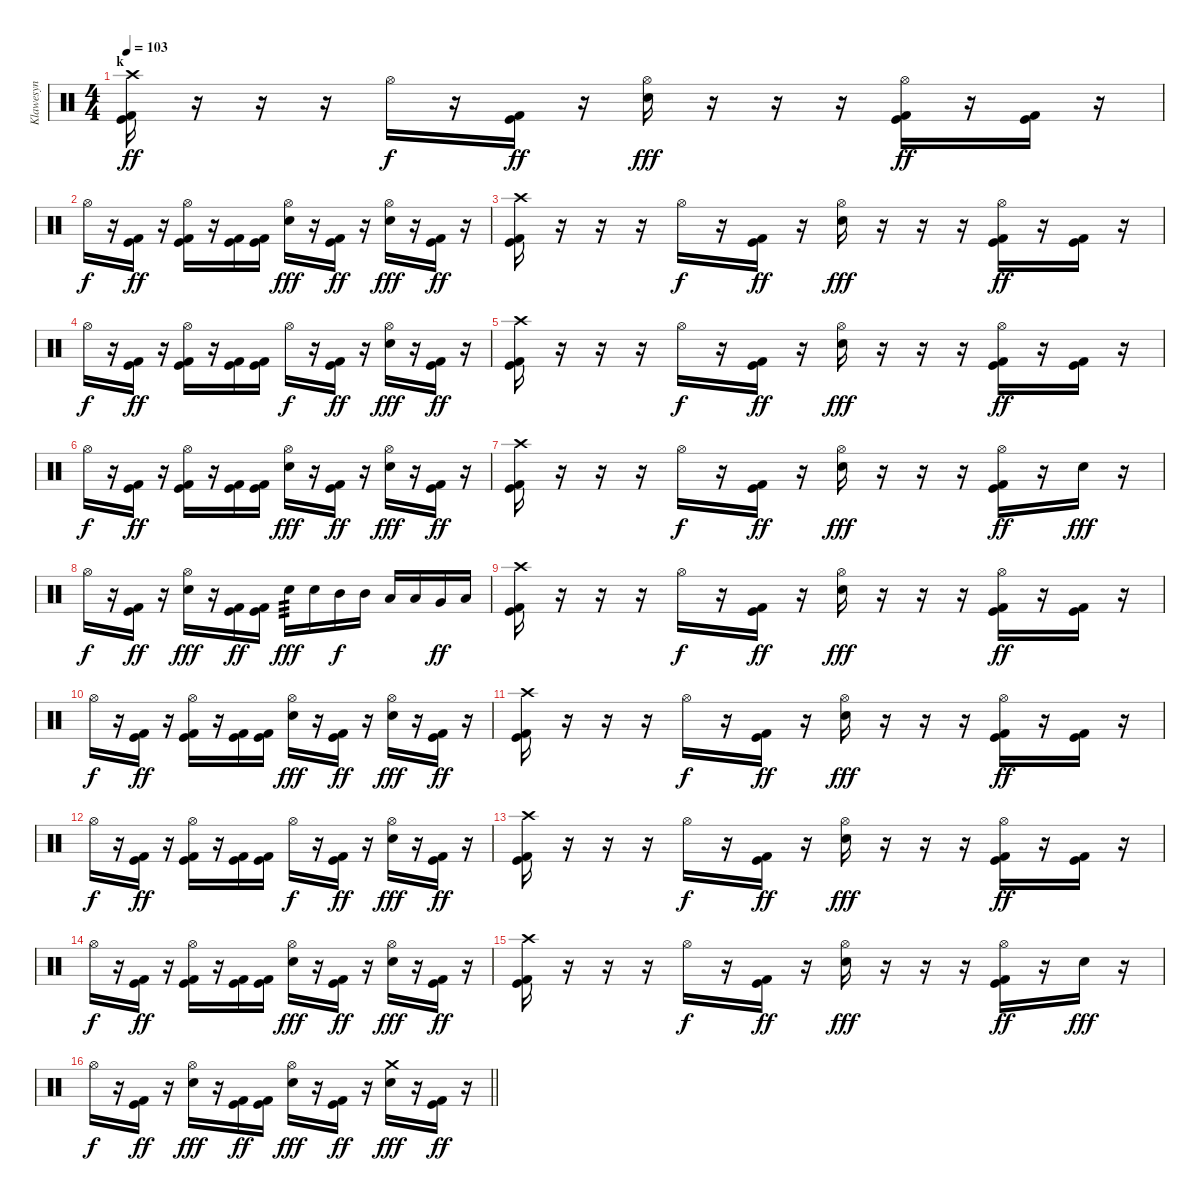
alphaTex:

\track ("Klawesyn" "Klawesyn") {instrument percussion}
\staff {score}
\articulation defaults
\ts (4 4)
\section ("" "k")
\tempo 103
\clef neutral
\ks c
("Crash high (hit)" "Kick (hit)" "Kick (hit) 2").16{dy ff} r.16 r.16 r.16 "Hi-Hat (open)".16{dy f} r.16 ("Kick (hit)" "Kick (hit) 2").16{dy ff} r.16 ("Hi-Hat (open)" "Electric Snare (hit)").16{dy fff} r.16 r.16 r.16 ("Hi-Hat (open)" "Kick (hit)" "Kick (hit) 2").16{dy ff} r.16 ("Kick (hit)" "Kick (hit) 2").16 r.16 |
"Hi-Hat (open)".16{dy f} r.16 ("Kick (hit)" "Kick (hit) 2").16{dy ff} r.16 ("Hi-Hat (open)" "Kick (hit)" "Kick (hit) 2").16 r.16 ("Kick (hit)" "Kick (hit) 2").16 ("Kick (hit)" "Kick (hit) 2").16 ("Hi-Hat (open)" "Electric Snare (hit)").16{dy fff} r.16 ("Kick (hit)" "Kick (hit) 2").16{dy ff} r.16 ("Hi-Hat (open)" "Electric Snare (hit)").16{dy fff} r.16 ("Kick (hit)" "Kick (hit) 2").16{dy ff} r.16 |
("Crash high (hit)" "Kick (hit)" "Kick (hit) 2").16 r.16 r.16 r.16 "Hi-Hat (open)".16{dy f} r.16 ("Kick (hit)" "Kick (hit) 2").16{dy ff} r.16 ("Hi-Hat (open)" "Electric Snare (hit)").16{dy fff} r.16 r.16 r.16 ("Hi-Hat (open)" "Kick (hit)" "Kick (hit) 2").16{dy ff} r.16 ("Kick (hit)" "Kick (hit) 2").16 r.16 |
"Hi-Hat (open)".16{dy f} r.16 ("Kick (hit)" "Kick (hit) 2").16{dy ff} r.16 ("Hi-Hat (open)" "Kick (hit)" "Kick (hit) 2").16 r.16 ("Kick (hit)" "Kick (hit) 2").16 ("Kick (hit)" "Kick (hit) 2").16 "Hi-Hat (open)".16{dy f} r.16 ("Kick (hit)" "Kick (hit) 2").16{dy ff} r.16 ("Hi-Hat (open)" "Electric Snare (hit)").16{dy fff} r.16 ("Kick (hit)" "Kick (hit) 2").16{dy ff} r.16 |
("Crash high (hit)" "Kick (hit)" "Kick (hit) 2").16 r.16 r.16 r.16 "Hi-Hat (open)".16{dy f} r.16 ("Kick (hit)" "Kick (hit) 2").16{dy ff} r.16 ("Hi-Hat (open)" "Electric Snare (hit)").16{dy fff} r.16 r.16 r.16 ("Hi-Hat (open)" "Kick (hit)" "Kick (hit) 2").16{dy ff} r.16 ("Kick (hit)" "Kick (hit) 2").16 r.16 |
"Hi-Hat (open)".16{dy f} r.16 ("Kick (hit)" "Kick (hit) 2").16{dy ff} r.16 ("Hi-Hat (open)" "Kick (hit)" "Kick (hit) 2").16 r.16 ("Kick (hit)" "Kick (hit) 2").16 ("Kick (hit)" "Kick (hit) 2").16 ("Hi-Hat (open)" "Electric Snare (hit)").16{dy fff} r.16 ("Kick (hit)" "Kick (hit) 2").16{dy ff} r.16 ("Hi-Hat (open)" "Electric Snare (hit)").16{dy fff} r.16 ("Kick (hit)" "Kick (hit) 2").16{dy ff} r.16 |
("Crash high (hit)" "Kick (hit)" "Kick (hit) 2").16 r.16 r.16 r.16 "Hi-Hat (open)".16{dy f} r.16 ("Kick (hit)" "Kick (hit) 2").16{dy ff} r.16 ("Hi-Hat (open)" "Electric Snare (hit)").16{dy fff} r.16 r.16 r.16 ("Hi-Hat (open)" "Kick (hit)" "Kick (hit) 2").16{dy ff} r.16 "Electric Snare (hit)".16{dy fff} r.16 |
"Hi-Hat (open)".16{dy f} r.16 ("Kick (hit)" "Kick (hit) 2").16{dy ff} r.16 ("Hi-Hat (open)" "Electric Snare (hit)").16{dy fff} r.16 ("Kick (hit)" "Kick (hit) 2").16{dy ff} ("Kick (hit)" "Kick (hit) 2").16 "Electric Snare (hit)".16{tp 3 dy fff} "Electric Snare (hit)".16 "Mid Tom (hit)".16{dy f} "Mid Tom (hit)".16 "Low Tom (hit)".16 "Low Tom (hit)".16 "Very Low Tom (hit)".16{dy ff} "Low Floor Tom (hit)".16 |
("Crash high (hit)" "Kick (hit)" "Kick (hit) 2").16 r.16 r.16 r.16 "Hi-Hat (open)".16{dy f} r.16 ("Kick (hit)" "Kick (hit) 2").16{dy ff} r.16 ("Hi-Hat (open)" "Electric Snare (hit)").16{dy fff} r.16 r.16 r.16 ("Hi-Hat (open)" "Kick (hit)" "Kick (hit) 2").16{dy ff} r.16 ("Kick (hit)" "Kick (hit) 2").16 r.16 |
"Hi-Hat (open)".16{dy f} r.16 ("Kick (hit)" "Kick (hit) 2").16{dy ff} r.16 ("Hi-Hat (open)" "Kick (hit)" "Kick (hit) 2").16 r.16 ("Kick (hit)" "Kick (hit) 2").16 ("Kick (hit)" "Kick (hit) 2").16 ("Hi-Hat (open)" "Electric Snare (hit)").16{dy fff} r.16 ("Kick (hit)" "Kick (hit) 2").16{dy ff} r.16 ("Hi-Hat (open)" "Electric Snare (hit)").16{dy fff} r.16 ("Kick (hit)" "Kick (hit) 2").16{dy ff} r.16 |
("Crash high (hit)" "Kick (hit)" "Kick (hit) 2").16 r.16 r.16 r.16 "Hi-Hat (open)".16{dy f} r.16 ("Kick (hit)" "Kick (hit) 2").16{dy ff} r.16 ("Hi-Hat (open)" "Electric Snare (hit)").16{dy fff} r.16 r.16 r.16 ("Hi-Hat (open)" "Kick (hit)" "Kick (hit) 2").16{dy ff} r.16 ("Kick (hit)" "Kick (hit) 2").16 r.16 |
"Hi-Hat (open)".16{dy f} r.16 ("Kick (hit)" "Kick (hit) 2").16{dy ff} r.16 ("Hi-Hat (open)" "Kick (hit)" "Kick (hit) 2").16 r.16 ("Kick (hit)" "Kick (hit) 2").16 ("Kick (hit)" "Kick (hit) 2").16 "Hi-Hat (open)".16{dy f} r.16 ("Kick (hit)" "Kick (hit) 2").16{dy ff} r.16 ("Hi-Hat (open)" "Electric Snare (hit)").16{dy fff} r.16 ("Kick (hit)" "Kick (hit) 2").16{dy ff} r.16 |
("Crash high (hit)" "Kick (hit)" "Kick (hit) 2").16 r.16 r.16 r.16 "Hi-Hat (open)".16{dy f} r.16 ("Kick (hit)" "Kick (hit) 2").16{dy ff} r.16 ("Hi-Hat (open)" "Electric Snare (hit)").16{dy fff} r.16 r.16 r.16 ("Hi-Hat (open)" "Kick (hit)" "Kick (hit) 2").16{dy ff} r.16 ("Kick (hit)" "Kick (hit) 2").16 r.16 |
"Hi-Hat (open)".16{dy f} r.16 ("Kick (hit)" "Kick (hit) 2").16{dy ff} r.16 ("Hi-Hat (open)" "Kick (hit)" "Kick (hit) 2").16 r.16 ("Kick (hit)" "Kick (hit) 2").16 ("Kick (hit)" "Kick (hit) 2").16 ("Hi-Hat (open)" "Electric Snare (hit)").16{dy fff} r.16 ("Kick (hit)" "Kick (hit) 2").16{dy ff} r.16 ("Hi-Hat (open)" "Electric Snare (hit)").16{dy fff} r.16 ("Kick (hit)" "Kick (hit) 2").16{dy ff} r.16 |
("Crash high (hit)" "Kick (hit)" "Kick (hit) 2").16 r.16 r.16 r.16 "Hi-Hat (open)".16{dy f} r.16 ("Kick (hit)" "Kick (hit) 2").16{dy ff} r.16 ("Hi-Hat (open)" "Electric Snare (hit)").16{dy fff} r.16 r.16 r.16 ("Hi-Hat (open)" "Kick (hit)" "Kick (hit) 2").16{dy ff} r.16 "Electric Snare (hit)".16{dy fff} r.16 |
\barLineRight lightlight "Hi-Hat (open)".16{dy f}
r.16 ("Kick (hit)" "Kick (hit) 2").16{dy ff} r.16 ("Hi-Hat (open)" "Electric Snare (hit)").16{dy fff} r.16 ("Kick (hit)" "Kick (hit) 2").16{dy ff} ("Kick (hit)" "Kick (hit) 2").16 ("Hi-Hat (open)" "Electric Snare (hit)").16{dy fff} r.16 ("Kick (hit)" "Kick (hit) 2").16{dy ff} r.16 ("Crash medium (hit)" "Electric Snare (hit)").16{dy fff} r.16 ("Kick (hit)" "Kick (hit) 2").16{dy ff} r.16
